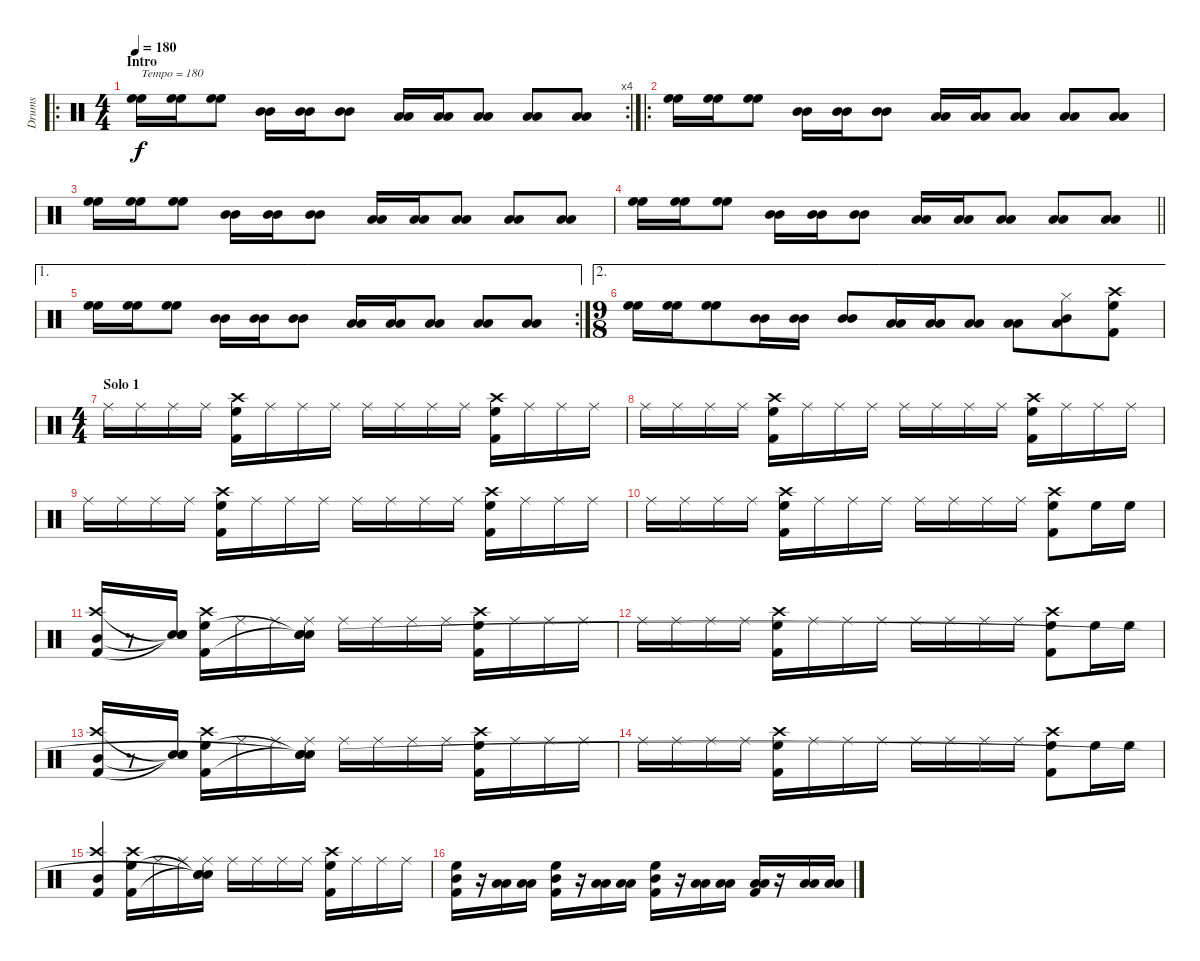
\track ("Drums" "Drums") {instrument percussion}
\staff {score}
\articulation defaults
\ro
\rc 4
\ts (4 4)
\section ("" "Intro")
\tempo 180
\clef neutral
\ks c
("High Floor Tom (hit)" "High Floor Tom (hit)").16{txt "Tempo = 180" dy f} ("High Floor Tom (hit)" "High Floor Tom (hit)").16 ("High Floor Tom (hit)" "High Floor Tom (hit)").8 ("Mid Tom (hit)" "Mid Tom (hit)").16 ("Mid Tom (hit)" "Mid Tom (hit)").16 ("Mid Tom (hit)" "Mid Tom (hit)").8 ("Low Tom (hit)" "Low Tom (hit)").16 ("Low Tom (hit)" "Low Tom (hit)").16 ("Low Tom (hit)" "Low Tom (hit)").8 ("Low Floor Tom (hit)" "Low Floor Tom (hit)").8 ("Low Floor Tom (hit)" "Low Floor Tom (hit)").8 |
\ro
("High Floor Tom (hit)" "High Floor Tom (hit)").16 ("High Floor Tom (hit)" "High Floor Tom (hit)").16 ("High Floor Tom (hit)" "High Floor Tom (hit)").8 ("Mid Tom (hit)" "Mid Tom (hit)").16 ("Mid Tom (hit)" "Mid Tom (hit)").16 ("Mid Tom (hit)" "Mid Tom (hit)").8 ("Low Tom (hit)" "Low Tom (hit)").16 ("Low Tom (hit)" "Low Tom (hit)").16 ("Low Tom (hit)" "Low Tom (hit)").8 ("Low Floor Tom (hit)" "Low Floor Tom (hit)").8 ("Low Floor Tom (hit)" "Low Floor Tom (hit)").8 |
("High Floor Tom (hit)" "High Floor Tom (hit)").16 ("High Floor Tom (hit)" "High Floor Tom (hit)").16 ("High Floor Tom (hit)" "High Floor Tom (hit)").8 ("Mid Tom (hit)" "Mid Tom (hit)").16 ("Mid Tom (hit)" "Mid Tom (hit)").16 ("Mid Tom (hit)" "Mid Tom (hit)").8 ("Low Tom (hit)" "Low Tom (hit)").16 ("Low Tom (hit)" "Low Tom (hit)").16 ("Low Tom (hit)" "Low Tom (hit)").8 ("Low Floor Tom (hit)" "Low Floor Tom (hit)").8 ("Low Floor Tom (hit)" "Low Floor Tom (hit)").8 |
\barLineRight lightlight
("High Floor Tom (hit)" "High Floor Tom (hit)").16 ("High Floor Tom (hit)" "High Floor Tom (hit)").16 ("High Floor Tom (hit)" "High Floor Tom (hit)").8 ("Mid Tom (hit)" "Mid Tom (hit)").16 ("Mid Tom (hit)" "Mid Tom (hit)").16 ("Mid Tom (hit)" "Mid Tom (hit)").8 ("Low Tom (hit)" "Low Tom (hit)").16 ("Low Tom (hit)" "Low Tom (hit)").16 ("Low Tom (hit)" "Low Tom (hit)").8 ("Low Floor Tom (hit)" "Low Floor Tom (hit)").8 ("Low Floor Tom (hit)" "Low Floor Tom (hit)").8 |
\ae 1
\rc 2
("High Floor Tom (hit)" "High Floor Tom (hit)").16 ("High Floor Tom (hit)" "High Floor Tom (hit)").16 ("High Floor Tom (hit)" "High Floor Tom (hit)").8 ("Mid Tom (hit)" "Mid Tom (hit)").16 ("Mid Tom (hit)" "Mid Tom (hit)").16 ("Mid Tom (hit)" "Mid Tom (hit)").8 ("Low Tom (hit)" "Low Tom (hit)").16 ("Low Tom (hit)" "Low Tom (hit)").16 ("Low Tom (hit)" "Low Tom (hit)").8 ("Low Floor Tom (hit)" "Low Floor Tom (hit)").8 ("Low Floor Tom (hit)" "Low Floor Tom (hit)").8 |
\ae 2
\ts (9 8)
("High Floor Tom (hit)" "High Floor Tom (hit)").16 ("High Floor Tom (hit)" "High Floor Tom (hit)").16 ("High Floor Tom (hit)" "High Floor Tom (hit)").8 ("Mid Tom (hit)" "Mid Tom (hit)").16 ("Mid Tom (hit)" "Mid Tom (hit)").16 ("Mid Tom (hit)" "Mid Tom (hit)").8 ("Low Tom (hit)" "Low Tom (hit)").16 ("Low Tom (hit)" "Low Tom (hit)").16 ("Low Tom (hit)" "Low Tom (hit)").8 ("Low Floor Tom (hit)" "Low Floor Tom (hit)").8 ("Mid Tom (hit)" "Low Tom (hit)" "Hi-Hat (closed)").8 ("Crash high (hit)" "High Floor Tom (hit)" "Kick (hit) 2").8 |
\ts (4 4)
\section ("" "Solo 1")
"Ride (middle)".16 "Ride (middle)".16 "Ride (middle)".16 "Ride (middle)".16 ("Crash high (hit)" "High Floor Tom (hit)" "Kick (hit) 2").16 "Ride (middle)".16 "Ride (middle)".16 "Ride (middle)".16 "Ride (middle)".16 "Ride (middle)".16 "Ride (middle)".16 "Ride (middle)".16 ("Crash high (hit)" "High Floor Tom (hit)" "Kick (hit) 2").16 "Ride (middle)".16 "Ride (middle)".16 "Ride (middle)".16 |
"Ride (middle)".16 "Ride (middle)".16 "Ride (middle)".16 "Ride (middle)".16 ("Crash high (hit)" "High Floor Tom (hit)" "Kick (hit) 2").16 "Ride (middle)".16 "Ride (middle)".16 "Ride (middle)".16 "Ride (middle)".16 "Ride (middle)".16 "Ride (middle)".16 "Ride (middle)".16 ("Crash high (hit)" "High Floor Tom (hit)" "Kick (hit) 2").16 "Ride (middle)".16 "Ride (middle)".16 "Ride (middle)".16 |
"Ride (middle)".16 "Ride (middle)".16 "Ride (middle)".16 "Ride (middle)".16 ("Crash high (hit)" "High Floor Tom (hit)" "Kick (hit) 2").16 "Ride (middle)".16 "Ride (middle)".16 "Ride (middle)".16 "Ride (middle)".16 "Ride (middle)".16 "Ride (middle)".16 "Ride (middle)".16 ("Crash high (hit)" "High Floor Tom (hit)" "Kick (hit) 2").16 "Ride (middle)".16 "Ride (middle)".16 "Ride (middle)".16 |
"Ride (middle)".16 "Ride (middle)".16 "Ride (middle)".16 "Ride (middle)".16 ("Crash high (hit)" "High Floor Tom (hit)" "Kick (hit) 2").16 "Ride (middle)".16 "Ride (middle)".16 "Ride (middle)".16 "Ride (middle)".16 "Ride (middle)".16 "Ride (middle)".16 "Ride (middle)".16 ("Crash high (hit)" "High Floor Tom (hit)" "Kick (hit) 2").8 "High Floor Tom (hit)".16 "High Floor Tom (hit)".16 |
("Crash high (hit)" "Mid Tom (hit)" "Kick (hit) 2").16 r.8 ("Snare (hit)"{t} "Snare (hit)"{t} "Snare (hit)"{t}).16 ("Crash high (hit)" "High Floor Tom (hit)" "Kick (hit) 2").16 "Ride (middle)".16 "Ride (middle)".16 ("Ride (middle)" "Snare (hit)"{t} "Snare (hit)"{t} "Snare (hit)").16 "Ride (middle)".16 "Ride (middle)".16 "Ride (middle)".16 "Ride (middle)".16 ("Crash high (hit)" "High Floor Tom (hit)" "Kick (hit) 2").16 "Ride (middle)".16 "Ride (middle)".16 "Ride (middle)".16 |
"Ride (middle)".16 "Ride (middle)".16 "Ride (middle)".16 "Ride (middle)".16 ("Crash high (hit)" "High Floor Tom (hit)" "Kick (hit) 2").16 "Ride (middle)".16 "Ride (middle)".16 "Ride (middle)".16 "Ride (middle)".16 "Ride (middle)".16 "Ride (middle)".16 "Ride (middle)".16 ("Crash high (hit)" "High Floor Tom (hit)" "Kick (hit) 2").8 "High Floor Tom (hit)".16 "High Floor Tom (hit)".16 |
("Crash high (hit)" "Mid Tom (hit)" "Kick (hit) 2").16 r.8 ("Snare (hit)"{t} "Snare (hit)"{t} "Snare (hit)"{t}).16 ("Crash high (hit)" "High Floor Tom (hit)" "Kick (hit) 2").16 "Ride (middle)".16 "Ride (middle)".16 ("Ride (middle)" "Snare (hit)"{t} "Snare (hit)"{t} "Snare (hit)"{t}).16 "Ride (middle)".16 "Ride (middle)".16 "Ride (middle)".16 "Ride (middle)".16 ("Crash high (hit)" "High Floor Tom (hit)" "Kick (hit) 2").16 "Ride (middle)".16 "Ride (middle)".16 "Ride (middle)".16 |
"Ride (middle)".16 "Ride (middle)".16 "Ride (middle)".16 "Ride (middle)".16 ("Crash high (hit)" "High Floor Tom (hit)" "Kick (hit) 2").16 "Ride (middle)".16 "Ride (middle)".16 "Ride (middle)".16 "Ride (middle)".16 "Ride (middle)".16 "Ride (middle)".16 "Ride (middle)".16 ("Crash high (hit)" "High Floor Tom (hit)" "Kick (hit) 2").8 "High Floor Tom (hit)".16 "High Floor Tom (hit)".16 |
("Crash high (hit)" "Mid Tom (hit)" "Kick (hit) 2").4 ("Crash high (hit)" "High Floor Tom (hit)" "Kick (hit) 2").16 "Ride (middle)".16 "Ride (middle)".16 ("Ride (middle)" "Snare (hit)"{t} "Snare (hit)"{t} "Snare (hit)"{t}).16 "Ride (middle)".16 "Ride (middle)".16 "Ride (middle)".16 "Ride (middle)".16 ("Crash high (hit)" "High Floor Tom (hit)" "Kick (hit) 2").16 "Ride (middle)".16 "Ride (middle)".16 "Ride (middle)".16 |
("High Floor Tom (hit)" "Mid Tom (hit)" "Kick (hit) 2").16 r.16 ("Low Tom (hit)" "Low Tom (hit)").16 ("Low Tom (hit)" "Low Tom (hit)").16 ("High Floor Tom (hit)" "Mid Tom (hit)" "Kick (hit) 2").16 r.16 ("Low Tom (hit)" "Low Tom (hit)").16 ("Low Tom (hit)" "Low Tom (hit)").16 ("High Floor Tom (hit)" "Mid Tom (hit)" "Kick (hit) 2").16 r.16 ("Low Tom (hit)" "Low Tom (hit)").16 ("Low Tom (hit)" "Low Tom (hit)").16 ("Low Floor Tom (hit)" "Low Floor Tom (hit)" "Kick (hit) 2").16 r.16 ("Low Floor Tom (hit)" "Low Floor Tom (hit)").16 ("Low Floor Tom (hit)" "Low Floor Tom (hit)").16
